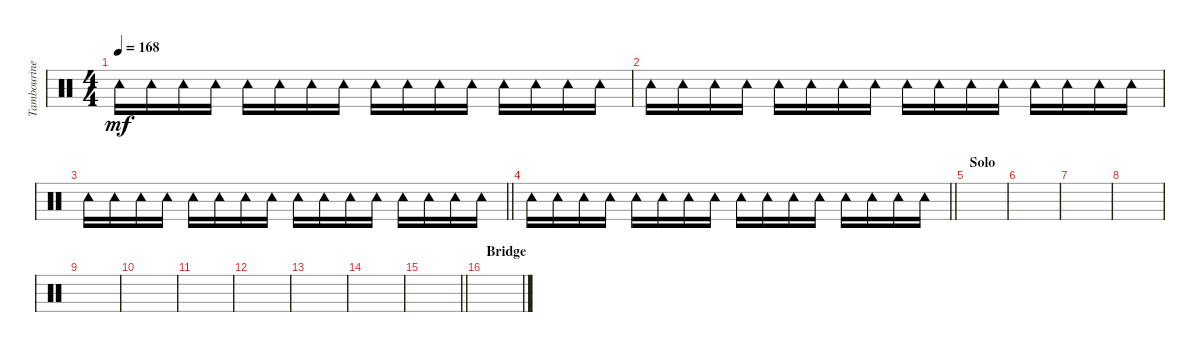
\track ("Tambourine" "Tambourine") {instrument percussion}
\staff {score}
\articulation defaults
\ts (4 4)
\tempo 168
\clef neutral
\ks c "Tambourine (hit)".16{dy mf} "Tambourine (hit)".16 "Tambourine (hit)".16 "Tambourine (hit)".16 "Tambourine (hit)".16 "Tambourine (hit)".16 "Tambourine (hit)".16 "Tambourine (hit)".16 "Tambourine (hit)".16 "Tambourine (hit)".16 "Tambourine (hit)".16 "Tambourine (hit)".16 "Tambourine (hit)".16 "Tambourine (hit)".16 "Tambourine (hit)".16 "Tambourine (hit)".16
|
"Tambourine (hit)".16 "Tambourine (hit)".16 "Tambourine (hit)".16 "Tambourine (hit)".16 "Tambourine (hit)".16 "Tambourine (hit)".16 "Tambourine (hit)".16 "Tambourine (hit)".16 "Tambourine (hit)".16 "Tambourine (hit)".16 "Tambourine (hit)".16 "Tambourine (hit)".16 "Tambourine (hit)".16 "Tambourine (hit)".16 "Tambourine (hit)".16 "Tambourine (hit)".16 |
\barLineRight lightlight "Tambourine (hit)".16 "Tambourine (hit)".16 "Tambourine (hit)".16 "Tambourine (hit)".16 "Tambourine (hit)".16 "Tambourine (hit)".16 "Tambourine (hit)".16 "Tambourine (hit)".16 "Tambourine (hit)".16 "Tambourine (hit)".16 "Tambourine (hit)".16 "Tambourine (hit)".16 "Tambourine (hit)".16 "Tambourine (hit)".16 "Tambourine (hit)".16 "Tambourine (hit)".16
|
\barLineRight lightlight "Tambourine (hit)".16 "Tambourine (hit)".16 "Tambourine (hit)".16 "Tambourine (hit)".16 "Tambourine (hit)".16 "Tambourine (hit)".16 "Tambourine (hit)".16 "Tambourine (hit)".16 "Tambourine (hit)".16 "Tambourine (hit)".16 "Tambourine (hit)".16 "Tambourine (hit)".16 "Tambourine (hit)".16 "Tambourine (hit)".16 "Tambourine (hit)".16 "Tambourine (hit)".16
|
\section ("" "Solo")
|
|
|
|
|
|
|
|
|
|
\barLineRight lightlight
|
\section ("" "Bridge")
